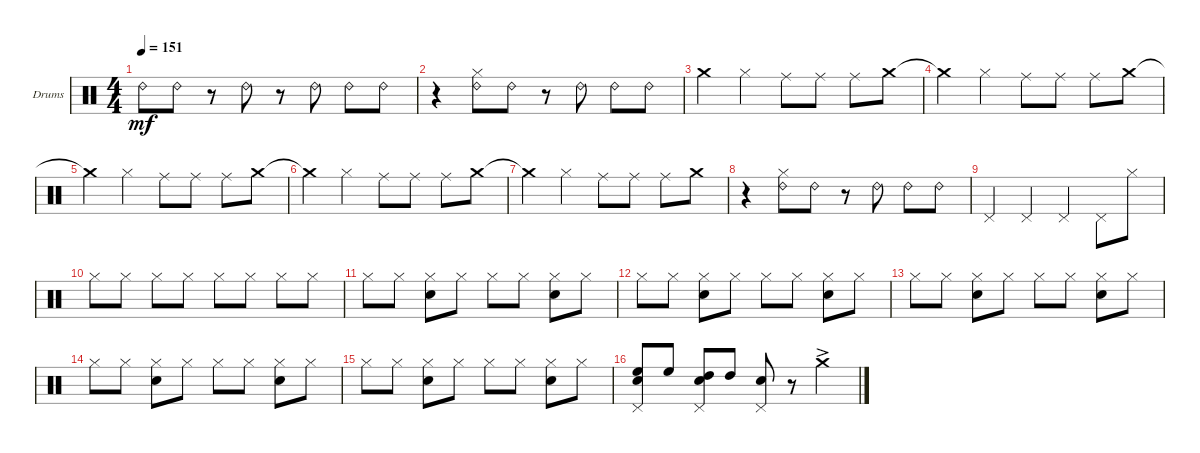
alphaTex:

\bracketExtendMode groupsimilarinstruments
\firstSystemTrackNameOrientation horizontal
\otherSystemsTrackNameOrientation horizontal
\track ("Drumkit" "Drums") {instrument percussion}
\staff {score}
\articulation defaults
\ts (4 4)
\tempo 151
\clef neutral
\ks aminor "Ride (bell) 2".8{dy mf} "Ride (bell) 2".8
r.8 "Ride (bell) 2".8 r.8 "Ride (bell) 2".8 "Ride (bell) 2".8 "Ride (bell) 2".8 |
r.4 ("Ride (bell) 2" "Hi-Hat (closed)").8 "Ride (bell) 2".8 r.8 "Ride (bell) 2".8 "Ride (bell) 2".8 "Ride (bell) 2".8 |
"Crash medium (hit)".4 "Hi-Hat (closed)".4 "Ride (middle)".8 "Ride (middle)".8 "Ride (middle)".8 "Crash medium (hit)".8 |
"Crash medium (hit)"{t}.4 "Hi-Hat (closed)".4 "Ride (middle)".8 "Ride (middle)".8 "Ride (middle)".8 "Crash medium (hit)".8 |
"Crash medium (hit)"{t}.4 "Hi-Hat (closed)".4 "Ride (middle)".8 "Ride (middle)".8 "Ride (middle)".8 "Crash medium (hit)".8 |
"Crash medium (hit)"{t}.4 "Hi-Hat (closed)".4 "Ride (middle)".8 "Ride (middle)".8 "Ride (middle)".8 "Crash medium (hit)".8 |
"Crash medium (hit)"{t}.4 "Hi-Hat (closed)".4 "Ride (middle)".8 "Ride (middle)".8 "Ride (middle)".8 "Crash medium (hit)".8 |
r.4 ("Ride (bell) 2" "Hi-Hat (closed)").8 "Ride (bell) 2".8 r.8 "Ride (bell) 2".8 "Ride (bell) 2".8 "Ride (bell) 2".8 |
"Pedal Hi-Hat (hit)".4 "Pedal Hi-Hat (hit)".4 "Pedal Hi-Hat (hit)".4 "Pedal Hi-Hat (hit)".8 "Hi-Hat (closed)".8 |
"Hi-Hat (closed)".8 "Hi-Hat (closed)".8 "Hi-Hat (closed)".8 "Hi-Hat (closed)".8 "Hi-Hat (closed)".8 "Hi-Hat (closed)".8 "Hi-Hat (closed)".8 "Hi-Hat (closed)".8 |
"Hi-Hat (closed)".8 "Hi-Hat (closed)".8 ("Snare (hit) 2" "Hi-Hat (closed)").8 "Hi-Hat (closed)".8 "Hi-Hat (closed)".8 "Hi-Hat (closed)".8 ("Snare (hit) 2" "Hi-Hat (closed)").8 "Hi-Hat (closed)".8 |
"Hi-Hat (closed)".8 "Hi-Hat (closed)".8 ("Snare (hit) 2" "Hi-Hat (closed)").8 "Hi-Hat (closed)".8 "Hi-Hat (closed)".8 "Hi-Hat (closed)".8 ("Snare (hit) 2" "Hi-Hat (closed)").8 "Hi-Hat (closed)".8 |
"Hi-Hat (closed)".8 "Hi-Hat (closed)".8 ("Snare (hit) 2" "Hi-Hat (closed)").8 "Hi-Hat (closed)".8 "Hi-Hat (closed)".8 "Hi-Hat (closed)".8 ("Snare (hit) 2" "Hi-Hat (closed)").8 "Hi-Hat (closed)".8 |
"Hi-Hat (closed)".8 "Hi-Hat (closed)".8 ("Snare (hit) 2" "Hi-Hat (closed)").8 "Hi-Hat (closed)".8 "Hi-Hat (closed)".8 "Hi-Hat (closed)".8 ("Snare (hit) 2" "Hi-Hat (closed)").8 "Hi-Hat (closed)".8 |
"Hi-Hat (closed)".8 "Hi-Hat (closed)".8 ("Snare (hit) 2" "Hi-Hat (closed)").8 "Hi-Hat (closed)".8 "Hi-Hat (closed)".8 "Hi-Hat (closed)".8 ("Snare (hit) 2" "Hi-Hat (closed)").8 "Hi-Hat (closed)".8 |
("Pedal Hi-Hat (hit)" "Snare (hit) 2" "High Floor Tom (hit)").8 "High Floor Tom (hit)".8 ("Pedal Hi-Hat (hit)" "Snare (hit) 2" "High Tom (hit)").8 "High Tom (hit)".8 ("Pedal Hi-Hat (hit)" "Snare (hit) 2").8 r.8 "Crash medium (hit)"{ac}.4
